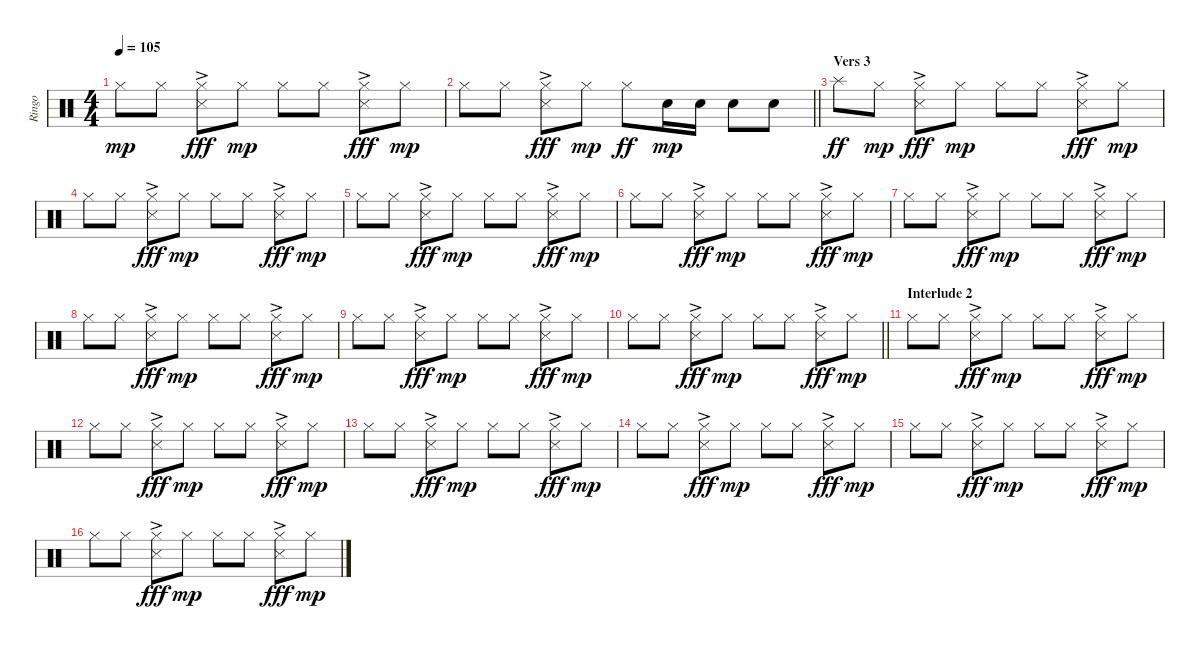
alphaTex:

\track ("Ringo" "Ringo") {instrument percussion}
\staff {score}
\articulation defaults
\ts (4 4)
\tempo 105
\clef neutral
\ks c "Hi-Hat (closed)".8{dy mp} "Hi-Hat (closed)".8
("Hi-Hat (closed)" "Metronome (hit)"{ac}).8{dy fff} "Hi-Hat (closed)".8{dy mp} "Hi-Hat (closed)".8 "Hi-Hat (closed)".8 ("Hi-Hat (closed)" "Metronome (hit)"{ac}).8{dy fff} "Hi-Hat (closed)".8{dy mp} |
\barLineRight lightlight "Hi-Hat (closed)".8 "Hi-Hat (closed)".8
("Hi-Hat (closed)" "Metronome (hit)"{ac}).8{dy fff} "Hi-Hat (closed)".8{dy mp} "Hi-Hat (closed)".8{dy ff} "Snare (hit) 2".16{dy mp} "Snare (hit) 2".16 "Snare (hit) 2".8 "Snare (hit) 2".8 |
\section ("" "Vers 3")
"Splash (hit)".8{dy ff} "Hi-Hat (closed)".8{dy mp} ("Hi-Hat (closed)" "Metronome (hit)"{ac}).8{dy fff} "Hi-Hat (closed)".8{dy mp} "Hi-Hat (closed)".8 "Hi-Hat (closed)".8 ("Hi-Hat (closed)" "Metronome (hit)"{ac}).8{dy fff} "Hi-Hat (closed)".8{dy mp} |
"Hi-Hat (closed)".8 "Hi-Hat (closed)".8 ("Hi-Hat (closed)" "Metronome (hit)"{ac}).8{dy fff} "Hi-Hat (closed)".8{dy mp} "Hi-Hat (closed)".8 "Hi-Hat (closed)".8 ("Hi-Hat (closed)" "Metronome (hit)"{ac}).8{dy fff} "Hi-Hat (closed)".8{dy mp} |
"Hi-Hat (closed)".8 "Hi-Hat (closed)".8 ("Hi-Hat (closed)" "Metronome (hit)"{ac}).8{dy fff} "Hi-Hat (closed)".8{dy mp} "Hi-Hat (closed)".8 "Hi-Hat (closed)".8 ("Hi-Hat (closed)" "Metronome (hit)"{ac}).8{dy fff} "Hi-Hat (closed)".8{dy mp} |
"Hi-Hat (closed)".8 "Hi-Hat (closed)".8 ("Hi-Hat (closed)" "Metronome (hit)"{ac}).8{dy fff} "Hi-Hat (closed)".8{dy mp} "Hi-Hat (closed)".8 "Hi-Hat (closed)".8 ("Hi-Hat (closed)" "Metronome (hit)"{ac}).8{dy fff} "Hi-Hat (closed)".8{dy mp} |
"Hi-Hat (closed)".8 "Hi-Hat (closed)".8 ("Hi-Hat (closed)" "Metronome (hit)"{ac}).8{dy fff} "Hi-Hat (closed)".8{dy mp} "Hi-Hat (closed)".8 "Hi-Hat (closed)".8 ("Hi-Hat (closed)" "Metronome (hit)"{ac}).8{dy fff} "Hi-Hat (closed)".8{dy mp} |
"Hi-Hat (closed)".8 "Hi-Hat (closed)".8 ("Hi-Hat (closed)" "Metronome (hit)"{ac}).8{dy fff} "Hi-Hat (closed)".8{dy mp} "Hi-Hat (closed)".8 "Hi-Hat (closed)".8 ("Hi-Hat (closed)" "Metronome (hit)"{ac}).8{dy fff} "Hi-Hat (closed)".8{dy mp} |
"Hi-Hat (closed)".8 "Hi-Hat (closed)".8 ("Hi-Hat (closed)" "Metronome (hit)"{ac}).8{dy fff} "Hi-Hat (closed)".8{dy mp} "Hi-Hat (closed)".8 "Hi-Hat (closed)".8 ("Hi-Hat (closed)" "Metronome (hit)"{ac}).8{dy fff} "Hi-Hat (closed)".8{dy mp} |
\barLineRight lightlight "Hi-Hat (closed)".8 "Hi-Hat (closed)".8
("Hi-Hat (closed)" "Metronome (hit)"{ac}).8{dy fff} "Hi-Hat (closed)".8{dy mp} "Hi-Hat (closed)".8 "Hi-Hat (closed)".8 ("Hi-Hat (closed)" "Metronome (hit)"{ac}).8{dy fff} "Hi-Hat (closed)".8{dy mp} |
\section ("" "Interlude 2")
"Hi-Hat (closed)".8 "Hi-Hat (closed)".8 ("Hi-Hat (closed)" "Metronome (hit)"{ac}).8{dy fff} "Hi-Hat (closed)".8{dy mp} "Hi-Hat (closed)".8 "Hi-Hat (closed)".8 ("Hi-Hat (closed)" "Metronome (hit)"{ac}).8{dy fff} "Hi-Hat (closed)".8{dy mp} |
"Hi-Hat (closed)".8 "Hi-Hat (closed)".8 ("Hi-Hat (closed)" "Metronome (hit)"{ac}).8{dy fff} "Hi-Hat (closed)".8{dy mp} "Hi-Hat (closed)".8 "Hi-Hat (closed)".8 ("Hi-Hat (closed)" "Metronome (hit)"{ac}).8{dy fff} "Hi-Hat (closed)".8{dy mp} |
"Hi-Hat (closed)".8 "Hi-Hat (closed)".8 ("Hi-Hat (closed)" "Metronome (hit)"{ac}).8{dy fff} "Hi-Hat (closed)".8{dy mp} "Hi-Hat (closed)".8 "Hi-Hat (closed)".8 ("Hi-Hat (closed)" "Metronome (hit)"{ac}).8{dy fff} "Hi-Hat (closed)".8{dy mp} |
"Hi-Hat (closed)".8 "Hi-Hat (closed)".8 ("Hi-Hat (closed)" "Metronome (hit)"{ac}).8{dy fff} "Hi-Hat (closed)".8{dy mp} "Hi-Hat (closed)".8 "Hi-Hat (closed)".8 ("Hi-Hat (closed)" "Metronome (hit)"{ac}).8{dy fff} "Hi-Hat (closed)".8{dy mp} |
"Hi-Hat (closed)".8 "Hi-Hat (closed)".8 ("Hi-Hat (closed)" "Metronome (hit)"{ac}).8{dy fff} "Hi-Hat (closed)".8{dy mp} "Hi-Hat (closed)".8 "Hi-Hat (closed)".8 ("Hi-Hat (closed)" "Metronome (hit)"{ac}).8{dy fff} "Hi-Hat (closed)".8{dy mp} |
"Hi-Hat (closed)".8 "Hi-Hat (closed)".8 ("Hi-Hat (closed)" "Metronome (hit)"{ac}).8{dy fff} "Hi-Hat (closed)".8{dy mp} "Hi-Hat (closed)".8 "Hi-Hat (closed)".8 ("Hi-Hat (closed)" "Metronome (hit)"{ac}).8{dy fff} "Hi-Hat (closed)".8{dy mp}
